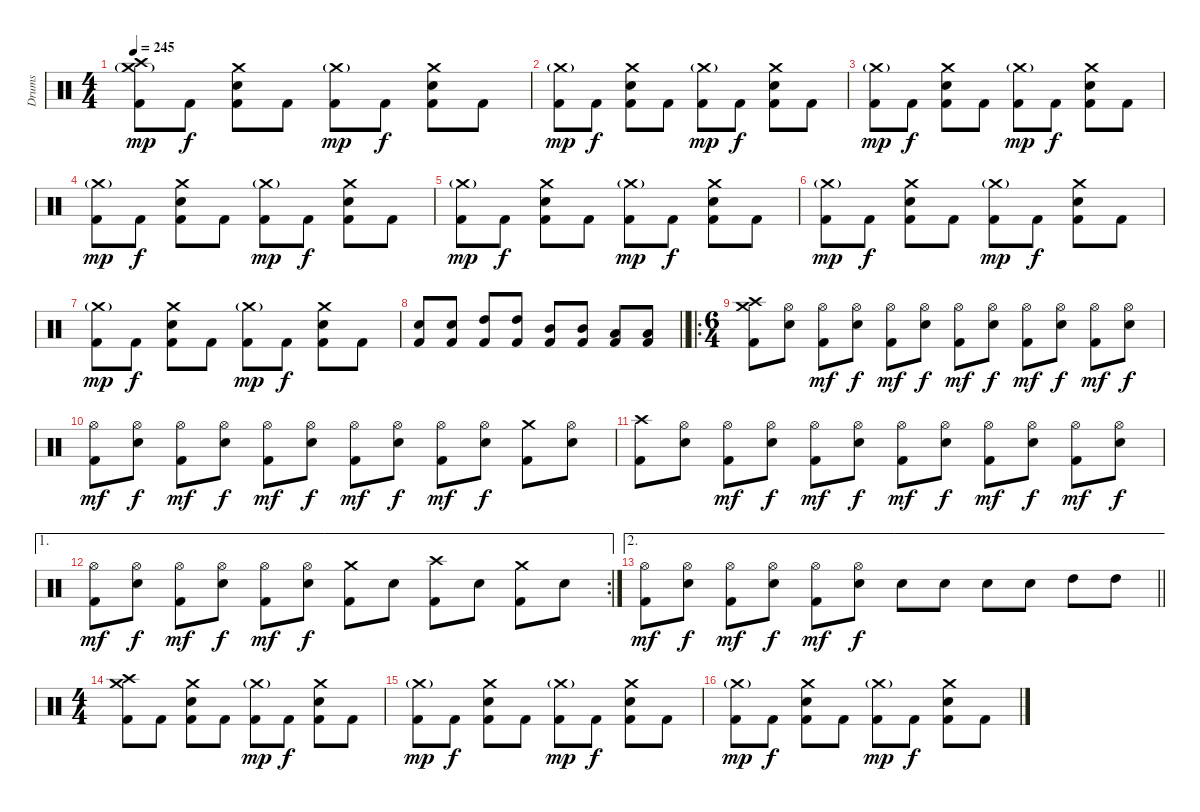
\track ("Drums" "Drums") {instrument percussion}
\staff {score}
\articulation defaults
\ts (4 4)
\tempo 245
\clef neutral
\ks c
("Crash medium (hit)"{g} "Crash high (hit)" "Kick (hit) 2").8{dy mp} "Kick (hit) 2".8{dy f} ("Crash medium (hit)" "Electric Snare (hit)" "Kick (hit) 2").8 "Kick (hit) 2".8 ("Crash medium (hit)"{g} "Kick (hit) 2").8{dy mp} "Kick (hit) 2".8{dy f} ("Crash medium (hit)" "Electric Snare (hit)" "Kick (hit) 2").8 "Kick (hit) 2".8 |
("Crash medium (hit)"{g} "Kick (hit) 2").8{dy mp} "Kick (hit) 2".8{dy f} ("Crash medium (hit)" "Electric Snare (hit)" "Kick (hit) 2").8 "Kick (hit) 2".8 ("Crash medium (hit)"{g} "Kick (hit) 2").8{dy mp} "Kick (hit) 2".8{dy f} ("Crash medium (hit)" "Electric Snare (hit)" "Kick (hit) 2").8 "Kick (hit) 2".8 |
("Crash medium (hit)"{g} "Kick (hit) 2").8{dy mp} "Kick (hit) 2".8{dy f} ("Crash medium (hit)" "Electric Snare (hit)" "Kick (hit) 2").8 "Kick (hit) 2".8 ("Crash medium (hit)"{g} "Kick (hit) 2").8{dy mp} "Kick (hit) 2".8{dy f} ("Crash medium (hit)" "Electric Snare (hit)" "Kick (hit) 2").8 "Kick (hit) 2".8 |
("Crash medium (hit)"{g} "Kick (hit) 2").8{dy mp} "Kick (hit) 2".8{dy f} ("Crash medium (hit)" "Electric Snare (hit)" "Kick (hit) 2").8 "Kick (hit) 2".8 ("Crash medium (hit)"{g} "Kick (hit) 2").8{dy mp} "Kick (hit) 2".8{dy f} ("Crash medium (hit)" "Electric Snare (hit)" "Kick (hit) 2").8 "Kick (hit) 2".8 |
("Crash medium (hit)"{g} "Kick (hit) 2").8{dy mp} "Kick (hit) 2".8{dy f} ("Crash medium (hit)" "Electric Snare (hit)" "Kick (hit) 2").8 "Kick (hit) 2".8 ("Crash medium (hit)"{g} "Kick (hit) 2").8{dy mp} "Kick (hit) 2".8{dy f} ("Crash medium (hit)" "Electric Snare (hit)" "Kick (hit) 2").8 "Kick (hit) 2".8 |
("Crash medium (hit)"{g} "Kick (hit) 2").8{dy mp} "Kick (hit) 2".8{dy f} ("Crash medium (hit)" "Electric Snare (hit)" "Kick (hit) 2").8 "Kick (hit) 2".8 ("Crash medium (hit)"{g} "Kick (hit) 2").8{dy mp} "Kick (hit) 2".8{dy f} ("Crash medium (hit)" "Electric Snare (hit)" "Kick (hit) 2").8 "Kick (hit) 2".8 |
("Crash medium (hit)"{g} "Kick (hit) 2").8{dy mp} "Kick (hit) 2".8{dy f} ("Crash medium (hit)" "Electric Snare (hit)" "Kick (hit) 2").8 "Kick (hit) 2".8 ("Crash medium (hit)"{g} "Kick (hit) 2").8{dy mp} "Kick (hit) 2".8{dy f} ("Crash medium (hit)" "Electric Snare (hit)" "Kick (hit) 2").8 "Kick (hit) 2".8 |
\barLineRight lightlight
("Electric Snare (hit)" "Kick (hit) 2").8 ("Electric Snare (hit)" "Kick (hit) 2").8 ("High Tom (hit)" "Kick (hit) 2").8 ("High Tom (hit)" "Kick (hit) 2").8 ("Mid Tom (hit)" "Kick (hit) 2").8 ("Mid Tom (hit)" "Kick (hit) 2").8 ("Low Tom (hit)" "Kick (hit) 2").8 ("Low Tom (hit)" "Kick (hit) 2").8 |
\ro
\ts (6 4)
("Crash high (hit)" "Crash medium (hit)" "Kick (hit) 2").8 ("Hi-Hat (open)" "Electric Snare (hit)").8 ("Hi-Hat (open)" "Kick (hit) 2").8{dy mf} ("Hi-Hat (open)" "Electric Snare (hit)").8{dy f} ("Hi-Hat (open)" "Kick (hit) 2").8{dy mf} ("Hi-Hat (open)" "Electric Snare (hit)").8{dy f} ("Hi-Hat (open)" "Kick (hit) 2").8{dy mf} ("Hi-Hat (open)" "Electric Snare (hit)").8{dy f} ("Hi-Hat (open)" "Kick (hit) 2").8{dy mf} ("Hi-Hat (open)" "Electric Snare (hit)").8{dy f} ("Hi-Hat (open)" "Kick (hit) 2").8{dy mf} ("Hi-Hat (open)" "Electric Snare (hit)").8{dy f} |
("Hi-Hat (open)" "Kick (hit) 2").8{dy mf} ("Hi-Hat (open)" "Electric Snare (hit)").8{dy f} ("Hi-Hat (open)" "Kick (hit) 2").8{dy mf} ("Hi-Hat (open)" "Electric Snare (hit)").8{dy f} ("Hi-Hat (open)" "Kick (hit) 2").8{dy mf} ("Hi-Hat (open)" "Electric Snare (hit)").8{dy f} ("Hi-Hat (open)" "Kick (hit) 2").8{dy mf} ("Hi-Hat (open)" "Electric Snare (hit)").8{dy f} ("Hi-Hat (open)" "Kick (hit) 2").8{dy mf} ("Hi-Hat (open)" "Electric Snare (hit)").8{dy f} ("Crash medium (hit)" "Kick (hit) 2").8 ("Hi-Hat (open)" "Electric Snare (hit)").8 |
("Crash high (hit)" "Kick (hit) 2").8 ("Hi-Hat (open)" "Electric Snare (hit)").8 ("Hi-Hat (open)" "Kick (hit) 2").8{dy mf} ("Hi-Hat (open)" "Electric Snare (hit)").8{dy f} ("Hi-Hat (open)" "Kick (hit) 2").8{dy mf} ("Hi-Hat (open)" "Electric Snare (hit)").8{dy f} ("Hi-Hat (open)" "Kick (hit) 2").8{dy mf} ("Hi-Hat (open)" "Electric Snare (hit)").8{dy f} ("Hi-Hat (open)" "Kick (hit) 2").8{dy mf} ("Hi-Hat (open)" "Electric Snare (hit)").8{dy f} ("Hi-Hat (open)" "Kick (hit) 2").8{dy mf} ("Hi-Hat (open)" "Electric Snare (hit)").8{dy f} |
\ae 1
\rc 2
("Hi-Hat (open)" "Kick (hit) 2").8{dy mf} ("Hi-Hat (open)" "Electric Snare (hit)").8{dy f} ("Hi-Hat (open)" "Kick (hit) 2").8{dy mf} ("Hi-Hat (open)" "Electric Snare (hit)").8{dy f} ("Hi-Hat (open)" "Kick (hit) 2").8{dy mf} ("Hi-Hat (open)" "Electric Snare (hit)").8{dy f} ("Crash medium (hit)" "Kick (hit) 2").8 "Electric Snare (hit)".8 ("Crash high (hit)" "Kick (hit) 2").8 "Electric Snare (hit)".8 ("Crash medium (hit)" "Kick (hit) 2").8 "Electric Snare (hit)".8 |
\ae 2
\barLineRight lightlight
("Hi-Hat (open)" "Kick (hit) 2").8{dy mf} ("Hi-Hat (open)" "Electric Snare (hit)").8{dy f} ("Hi-Hat (open)" "Kick (hit) 2").8{dy mf} ("Hi-Hat (open)" "Electric Snare (hit)").8{dy f} ("Hi-Hat (open)" "Kick (hit) 2").8{dy mf} ("Hi-Hat (open)" "Electric Snare (hit)").8{dy f} "Electric Snare (hit)".8 "Electric Snare (hit)".8 "Electric Snare (hit)".8 "Electric Snare (hit)".8 "High Tom (hit)".8 "High Tom (hit)".8 |
\ts (4 4)
("Crash medium (hit)" "Crash high (hit)" "Kick (hit) 2").8 "Kick (hit) 2".8 ("Crash medium (hit)" "Electric Snare (hit)" "Kick (hit) 2").8 "Kick (hit) 2".8 ("Crash medium (hit)"{g} "Kick (hit) 2").8{dy mp} "Kick (hit) 2".8{dy f} ("Crash medium (hit)" "Electric Snare (hit)" "Kick (hit) 2").8 "Kick (hit) 2".8 |
("Crash medium (hit)"{g} "Kick (hit) 2").8{dy mp} "Kick (hit) 2".8{dy f} ("Crash medium (hit)" "Electric Snare (hit)" "Kick (hit) 2").8 "Kick (hit) 2".8 ("Crash medium (hit)"{g} "Kick (hit) 2").8{dy mp} "Kick (hit) 2".8{dy f} ("Crash medium (hit)" "Electric Snare (hit)" "Kick (hit) 2").8 "Kick (hit) 2".8 |
("Crash medium (hit)"{g} "Kick (hit) 2").8{dy mp} "Kick (hit) 2".8{dy f} ("Crash medium (hit)" "Electric Snare (hit)" "Kick (hit) 2").8 "Kick (hit) 2".8 ("Crash medium (hit)"{g} "Kick (hit) 2").8{dy mp} "Kick (hit) 2".8{dy f} ("Crash medium (hit)" "Electric Snare (hit)" "Kick (hit) 2").8 "Kick (hit) 2".8
